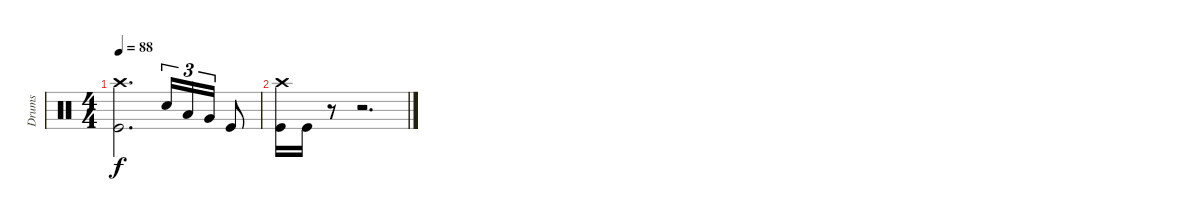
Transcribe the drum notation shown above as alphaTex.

\track ("Drums" "Drums") {instrument percussion}
\staff
\articulation defaults
\ts (4 4)
\tempo 88
\clef neutral
\ks c
("Crash high (hit)" "Kick (hit)").2{d dy f} "Electric Snare (hit)".16{tu (3 2)} "Low Tom (hit)".16{tu (3 2)} "Very Low Tom (hit)".16{tu (3 2)} "Kick (hit)".8 |
("Crash high (hit)" "Kick (hit)").16 "Kick (hit)".16 r.8 r.2{d}
